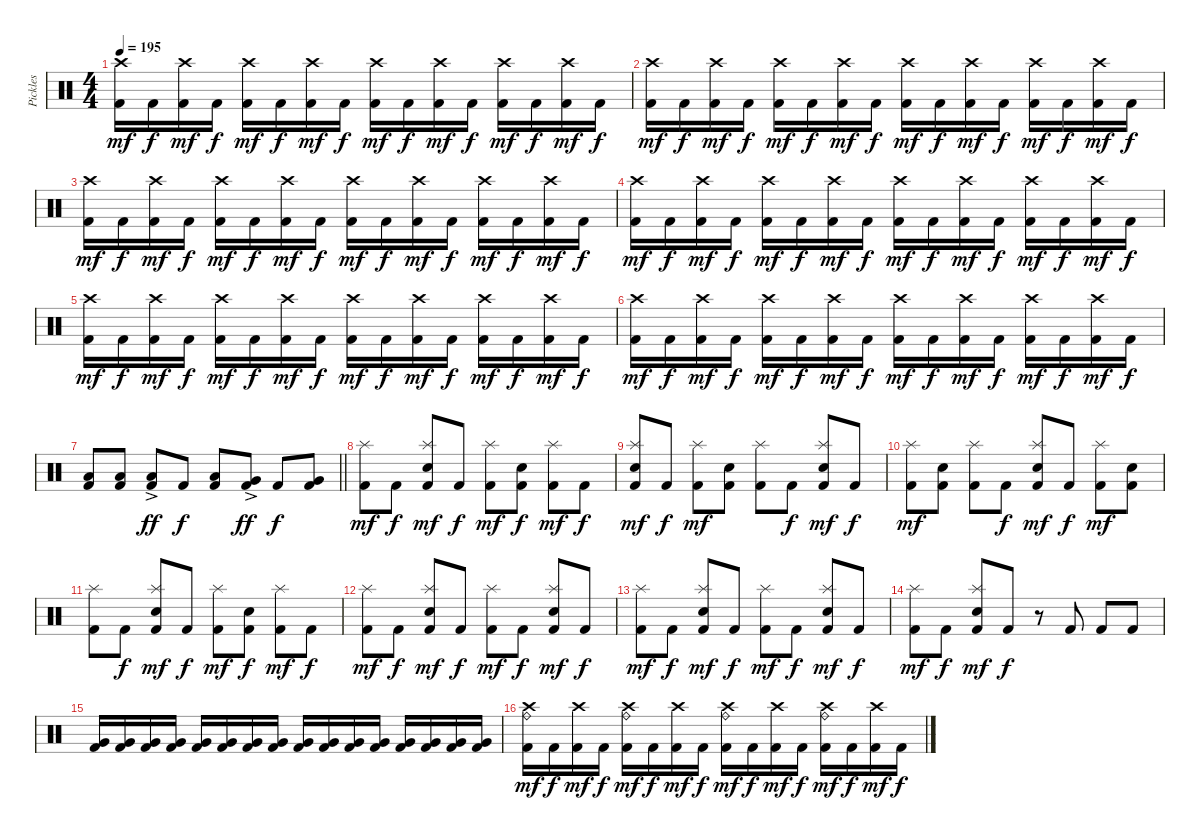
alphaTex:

\track ("Pickles" "Pickles") {instrument percussion}
\staff {score}
\articulation defaults
\ts (4 4)
\tempo 195
\clef neutral
\ks aminor
("Crash high (hit)" "Kick (hit) 2").16{dy mf} "Kick (hit) 2".16{dy f} ("Crash high (hit)" "Kick (hit) 2").16{dy mf} "Kick (hit) 2".16{dy f} ("Crash high (hit)" "Kick (hit) 2").16{dy mf} "Kick (hit) 2".16{dy f} ("Crash high (hit)" "Kick (hit) 2").16{dy mf} "Kick (hit) 2".16{dy f} ("Crash high (hit)" "Kick (hit) 2").16{dy mf} "Kick (hit) 2".16{dy f} ("Crash high (hit)" "Kick (hit) 2").16{dy mf} "Kick (hit) 2".16{dy f} ("Crash high (hit)" "Kick (hit) 2").16{dy mf} "Kick (hit) 2".16{dy f} ("Crash high (hit)" "Kick (hit) 2").16{dy mf} "Kick (hit) 2".16{dy f} |
("Crash high (hit)" "Kick (hit) 2").16{dy mf} "Kick (hit) 2".16{dy f} ("Crash high (hit)" "Kick (hit) 2").16{dy mf} "Kick (hit) 2".16{dy f} ("Crash high (hit)" "Kick (hit) 2").16{dy mf} "Kick (hit) 2".16{dy f} ("Crash high (hit)" "Kick (hit) 2").16{dy mf} "Kick (hit) 2".16{dy f} ("Crash high (hit)" "Kick (hit) 2").16{dy mf} "Kick (hit) 2".16{dy f} ("Crash high (hit)" "Kick (hit) 2").16{dy mf} "Kick (hit) 2".16{dy f} ("Crash high (hit)" "Kick (hit) 2").16{dy mf} "Kick (hit) 2".16{dy f} ("Crash high (hit)" "Kick (hit) 2").16{dy mf} "Kick (hit) 2".16{dy f} |
("Crash high (hit)" "Kick (hit) 2").16{dy mf} "Kick (hit) 2".16{dy f} ("Crash high (hit)" "Kick (hit) 2").16{dy mf} "Kick (hit) 2".16{dy f} ("Crash high (hit)" "Kick (hit) 2").16{dy mf} "Kick (hit) 2".16{dy f} ("Crash high (hit)" "Kick (hit) 2").16{dy mf} "Kick (hit) 2".16{dy f} ("Crash high (hit)" "Kick (hit) 2").16{dy mf} "Kick (hit) 2".16{dy f} ("Crash high (hit)" "Kick (hit) 2").16{dy mf} "Kick (hit) 2".16{dy f} ("Crash high (hit)" "Kick (hit) 2").16{dy mf} "Kick (hit) 2".16{dy f} ("Crash high (hit)" "Kick (hit) 2").16{dy mf} "Kick (hit) 2".16{dy f} |
("Crash high (hit)" "Kick (hit) 2").16{dy mf} "Kick (hit) 2".16{dy f} ("Crash high (hit)" "Kick (hit) 2").16{dy mf} "Kick (hit) 2".16{dy f} ("Crash high (hit)" "Kick (hit) 2").16{dy mf} "Kick (hit) 2".16{dy f} ("Crash high (hit)" "Kick (hit) 2").16{dy mf} "Kick (hit) 2".16{dy f} ("Crash high (hit)" "Kick (hit) 2").16{dy mf} "Kick (hit) 2".16{dy f} ("Crash high (hit)" "Kick (hit) 2").16{dy mf} "Kick (hit) 2".16{dy f} ("Crash high (hit)" "Kick (hit) 2").16{dy mf} "Kick (hit) 2".16{dy f} ("Crash high (hit)" "Kick (hit) 2").16{dy mf} "Kick (hit) 2".16{dy f} |
("Crash high (hit)" "Kick (hit) 2").16{dy mf} "Kick (hit) 2".16{dy f} ("Crash high (hit)" "Kick (hit) 2").16{dy mf} "Kick (hit) 2".16{dy f} ("Crash high (hit)" "Kick (hit) 2").16{dy mf} "Kick (hit) 2".16{dy f} ("Crash high (hit)" "Kick (hit) 2").16{dy mf} "Kick (hit) 2".16{dy f} ("Crash high (hit)" "Kick (hit) 2").16{dy mf} "Kick (hit) 2".16{dy f} ("Crash high (hit)" "Kick (hit) 2").16{dy mf} "Kick (hit) 2".16{dy f} ("Crash high (hit)" "Kick (hit) 2").16{dy mf} "Kick (hit) 2".16{dy f} ("Crash high (hit)" "Kick (hit) 2").16{dy mf} "Kick (hit) 2".16{dy f} |
("Crash high (hit)" "Kick (hit) 2").16{dy mf} "Kick (hit) 2".16{dy f} ("Crash high (hit)" "Kick (hit) 2").16{dy mf} "Kick (hit) 2".16{dy f} ("Crash high (hit)" "Kick (hit) 2").16{dy mf} "Kick (hit) 2".16{dy f} ("Crash high (hit)" "Kick (hit) 2").16{dy mf} "Kick (hit) 2".16{dy f} ("Crash high (hit)" "Kick (hit) 2").16{dy mf} "Kick (hit) 2".16{dy f} ("Crash high (hit)" "Kick (hit) 2").16{dy mf} "Kick (hit) 2".16{dy f} ("Crash high (hit)" "Kick (hit) 2").16{dy mf} "Kick (hit) 2".16{dy f} ("Crash high (hit)" "Kick (hit) 2").16{dy mf} "Kick (hit) 2".16{dy f} |
\barLineRight lightlight
("Low Tom (hit)" "Kick (hit) 2").8 ("Low Tom (hit)" "Kick (hit) 2").8 ("Low Tom (hit)"{ac} "Kick (hit) 2").8{dy ff} "Kick (hit) 2".8{dy f} ("Low Tom (hit)" "Kick (hit) 2").8 ("Very Low Tom (hit)"{ac} "Kick (hit) 2").8{dy ff} "Kick (hit) 2".8{dy f} ("Very Low Tom (hit)" "Kick (hit) 2").8 |
\section ("" "")
("Splash (hit)" "Kick (hit) 2").8{dy mf} "Kick (hit) 2".8{dy f} ("Splash (hit)" "Snare (hit) 2" "Kick (hit) 2").8{dy mf} "Kick (hit) 2".8{dy f} ("Splash (hit)" "Kick (hit) 2").8{dy mf} ("Snare (hit) 2" "Kick (hit) 2").8{dy f} ("Splash (hit)" "Kick (hit) 2").8{dy mf} "Kick (hit) 2".8{dy f} |
("Splash (hit)" "Snare (hit) 2" "Kick (hit) 2").8{dy mf} "Kick (hit) 2".8{dy f} ("Splash (hit)" "Kick (hit) 2").8{dy mf} ("Snare (hit) 2" "Kick (hit) 2").8 ("Splash (hit)" "Kick (hit) 2").8 "Kick (hit) 2".8{dy f} ("Splash (hit)" "Snare (hit) 2" "Kick (hit) 2").8{dy mf} "Kick (hit) 2".8{dy f} |
("Splash (hit)" "Kick (hit) 2").8{dy mf} ("Snare (hit) 2" "Kick (hit) 2").8 ("Splash (hit)" "Kick (hit) 2").8 "Kick (hit) 2".8{dy f} ("Splash (hit)" "Snare (hit) 2" "Kick (hit) 2").8{dy mf} "Kick (hit) 2".8{dy f} ("Splash (hit)" "Kick (hit) 2").8{dy mf} ("Snare (hit) 2" "Kick (hit) 2").8 |
("Splash (hit)" "Kick (hit) 2").8 "Kick (hit) 2".8{dy f} ("Splash (hit)" "Snare (hit) 2" "Kick (hit) 2").8{dy mf} "Kick (hit) 2".8{dy f} ("Splash (hit)" "Kick (hit) 2").8{dy mf} ("Snare (hit) 2" "Kick (hit) 2").8{dy f} ("Splash (hit)" "Kick (hit) 2").8{dy mf} "Kick (hit) 2".8{dy f} |
("Splash (hit)" "Kick (hit) 2").8{dy mf} "Kick (hit) 2".8{dy f} ("Splash (hit)" "Snare (hit) 2" "Kick (hit) 2").8{dy mf} "Kick (hit) 2".8{dy f} ("Splash (hit)" "Kick (hit) 2").8{dy mf} "Kick (hit) 2".8{dy f} ("Splash (hit)" "Snare (hit) 2" "Kick (hit) 2").8{dy mf} "Kick (hit) 2".8{dy f} |
("Splash (hit)" "Kick (hit) 2").8{dy mf} "Kick (hit) 2".8{dy f} ("Splash (hit)" "Snare (hit) 2" "Kick (hit) 2").8{dy mf} "Kick (hit) 2".8{dy f} ("Splash (hit)" "Kick (hit) 2").8{dy mf} "Kick (hit) 2".8{dy f} ("Splash (hit)" "Snare (hit) 2" "Kick (hit) 2").8{dy mf} "Kick (hit) 2".8{dy f} |
("Splash (hit)" "Kick (hit) 2").8{dy mf} "Kick (hit) 2".8{dy f} ("Splash (hit)" "Snare (hit) 2" "Kick (hit) 2").8{dy mf} "Kick (hit) 2".8{dy f} r.8 "Kick (hit) 2".8 "Kick (hit) 2".8 "Kick (hit) 2".8 |
("Very Low Tom (hit)" "Kick (hit) 2").16 ("Very Low Tom (hit)" "Kick (hit) 2").16 ("Very Low Tom (hit)" "Kick (hit) 2").16 ("Very Low Tom (hit)" "Kick (hit) 2").16 ("Very Low Tom (hit)" "Kick (hit) 2").16 ("Very Low Tom (hit)" "Kick (hit) 2").16 ("Very Low Tom (hit)" "Kick (hit) 2").16 ("Very Low Tom (hit)" "Kick (hit) 2").16 ("Very Low Tom (hit)" "Kick (hit) 2").16 ("Very Low Tom (hit)" "Kick (hit) 2").16 ("Very Low Tom (hit)" "Kick (hit) 2").16 ("Very Low Tom (hit)" "Kick (hit) 2").16 ("Very Low Tom (hit)" "Kick (hit) 2").16 ("Very Low Tom (hit)" "Kick (hit) 2").16 ("Very Low Tom (hit)" "Kick (hit) 2").16 ("Very Low Tom (hit)" "Kick (hit) 2").16 |
("Ride (bell)" "Crash high (hit)" "Kick (hit) 2").16{dy mf} "Kick (hit) 2".16{dy f} ("Crash high (hit)" "Kick (hit) 2").16{dy mf} "Kick (hit) 2".16{dy f} ("Ride (bell)" "Crash high (hit)" "Kick (hit) 2").16{dy mf} "Kick (hit) 2".16{dy f} ("Crash high (hit)" "Kick (hit) 2").16{dy mf} "Kick (hit) 2".16{dy f} ("Ride (bell)" "Crash high (hit)" "Kick (hit) 2").16{dy mf} "Kick (hit) 2".16{dy f} ("Crash high (hit)" "Kick (hit) 2").16{dy mf} "Kick (hit) 2".16{dy f} ("Ride (bell)" "Crash high (hit)" "Kick (hit) 2").16{dy mf} "Kick (hit) 2".16{dy f} ("Crash high (hit)" "Kick (hit) 2").16{dy mf} "Kick (hit) 2".16{dy f}
